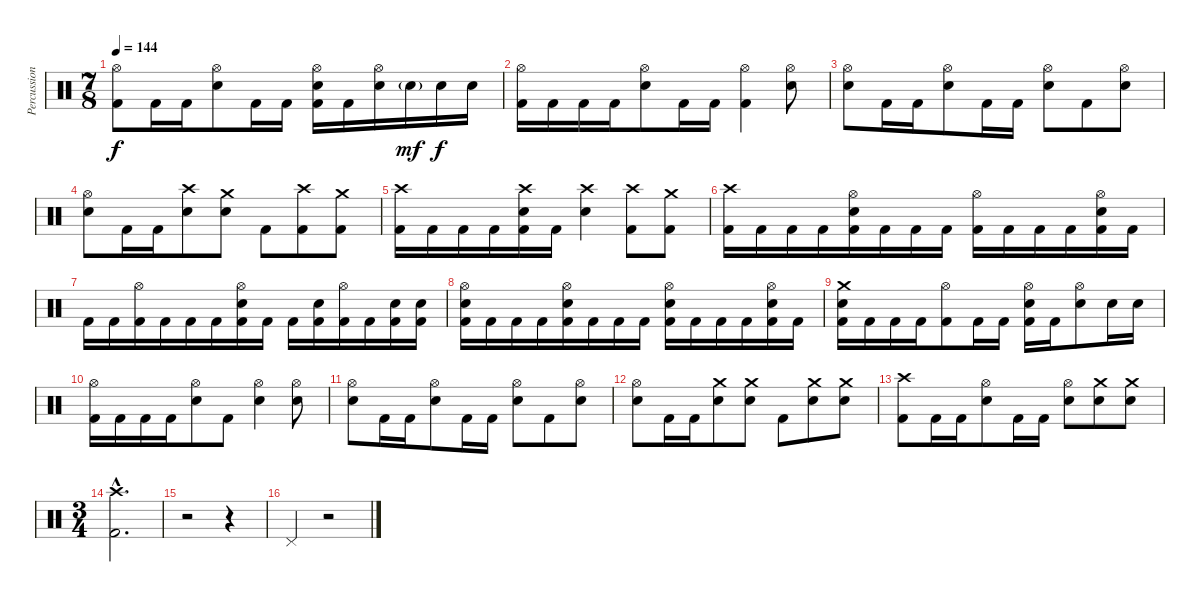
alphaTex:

\track ("Percussion" "Percussion") {instrument percussion}
\staff {score}
\articulation defaults
\ts (7 8)
\tempo 144
\clef neutral
\ks c
("Hi-Hat (open)" "Kick (hit) 2").8{dy f} "Kick (hit) 2".16 "Kick (hit) 2".16 ("Hi-Hat (open)" "Snare (hit) 2").8 "Kick (hit) 2".16 "Kick (hit) 2".16 ("Hi-Hat (open)" "Snare (hit) 2" "Kick (hit) 2").16 "Kick (hit) 2".16 ("Hi-Hat (open)" "Snare (hit) 2").16 "Snare (hit) 2"{g}.16{dy mf} "Snare (hit) 2".16{dy f} "Snare (hit) 2".16 |
\section ("" "")
("Hi-Hat (open)" "Kick (hit) 2").16 "Kick (hit) 2".16 "Kick (hit) 2".16 "Kick (hit) 2".16 ("Hi-Hat (open)" "Snare (hit) 2").8 "Kick (hit) 2".16 "Kick (hit) 2".16 ("Hi-Hat (open)" "Kick (hit) 2").4 ("Hi-Hat (open)" "Snare (hit) 2").8 |
("Hi-Hat (open)" "Snare (hit) 2").8 "Kick (hit) 2".16 "Kick (hit) 2".16 ("Hi-Hat (open)" "Snare (hit) 2").8 "Kick (hit) 2".16 "Kick (hit) 2".16 ("Hi-Hat (open)" "Snare (hit) 2").8 "Kick (hit) 2".8 ("Hi-Hat (open)" "Snare (hit) 2").8 |
("Hi-Hat (open)" "Snare (hit) 2").8 "Kick (hit) 2".16 "Kick (hit) 2".16 ("Crash high (hit)" "Snare (hit) 2").8 ("Crash medium (hit)" "Snare (hit) 2").8 "Kick (hit) 2".8 ("Crash high (hit)" "Kick (hit) 2").8 ("Crash medium (hit)" "Kick (hit) 2").8 |
("Crash high (hit)" "Kick (hit) 2").16 "Kick (hit) 2".16 "Kick (hit) 2".16 "Kick (hit) 2".16 ("Crash high (hit)" "Snare (hit) 2" "Kick (hit) 2").16 "Kick (hit) 2".16 ("Crash high (hit)" "Snare (hit) 2").4 ("Crash high (hit)" "Kick (hit) 2").8 ("Crash medium (hit)" "Kick (hit) 2").8 |
("Crash high (hit)" "Kick (hit) 2").16 "Kick (hit) 2".16 "Kick (hit) 2".16 "Kick (hit) 2".16 ("Hi-Hat (open)" "Snare (hit) 2" "Kick (hit) 2").16 "Kick (hit) 2".16 "Kick (hit) 2".16 "Kick (hit) 2".16 ("Hi-Hat (open)" "Kick (hit) 2").16 "Kick (hit) 2".16 "Kick (hit) 2".16 "Kick (hit) 2".16 ("Hi-Hat (open)" "Snare (hit) 2" "Kick (hit) 2").16 "Kick (hit) 2".16 |
"Kick (hit) 2".16 "Kick (hit) 2".16 ("Hi-Hat (open)" "Kick (hit) 2").16 "Kick (hit) 2".16 "Kick (hit) 2".16 "Kick (hit) 2".16 ("Hi-Hat (open)" "Snare (hit) 2" "Kick (hit) 2").16 "Kick (hit) 2".16 "Kick (hit) 2".16 ("Snare (hit) 2" "Kick (hit) 2").16 ("Hi-Hat (open)" "Kick (hit) 2").16 "Kick (hit) 2".16 ("Snare (hit) 2" "Kick (hit) 2").16 ("Snare (hit) 2" "Kick (hit) 2").16 |
("Hi-Hat (open)" "Snare (hit) 2" "Kick (hit) 2").16 "Kick (hit) 2".16 "Kick (hit) 2".16 "Kick (hit) 2".16 ("Hi-Hat (open)" "Snare (hit) 2" "Kick (hit) 2").16 "Kick (hit) 2".16 "Kick (hit) 2".16 "Kick (hit) 2".16 ("Hi-Hat (open)" "Snare (hit) 2" "Kick (hit) 2").16 "Kick (hit) 2".16 "Kick (hit) 2".16 "Kick (hit) 2".16 ("Hi-Hat (open)" "Snare (hit) 2" "Kick (hit) 2").16 "Kick (hit) 2".16 |
("Crash medium (hit)" "Snare (hit) 2" "Kick (hit) 2").16 "Kick (hit) 2".16 "Kick (hit) 2".16 "Kick (hit) 2".16 ("Hi-Hat (open)" "Kick (hit) 2").8 "Kick (hit) 2".16 "Kick (hit) 2".16 ("Hi-Hat (open)" "Snare (hit) 2" "Kick (hit) 2").16 "Kick (hit) 2".16 ("Hi-Hat (open)" "Snare (hit) 2").8 "Snare (hit) 2".16 "Snare (hit) 2".16 |
("Hi-Hat (open)" "Kick (hit) 2").16 "Kick (hit) 2".16 "Kick (hit) 2".16 "Kick (hit) 2".16 ("Hi-Hat (open)" "Snare (hit) 2").8 "Kick (hit) 2".8 ("Hi-Hat (open)" "Snare (hit) 2").4 ("Hi-Hat (open)" "Snare (hit) 2").8 |
("Hi-Hat (open)" "Snare (hit) 2").8 "Kick (hit) 2".16 "Kick (hit) 2".16 ("Hi-Hat (open)" "Snare (hit) 2").8 "Kick (hit) 2".16 "Kick (hit) 2".16 ("Hi-Hat (open)" "Snare (hit) 2").8 "Kick (hit) 2".8 ("Hi-Hat (open)" "Snare (hit) 2").8 |
("Hi-Hat (open)" "Snare (hit) 2").8 "Kick (hit) 2".16 "Kick (hit) 2".16 ("Crash medium (hit)" "Snare (hit) 2").8 ("Crash medium (hit)" "Snare (hit) 2").8 "Kick (hit) 2".8 ("Crash medium (hit)" "Snare (hit) 2").8 ("Crash medium (hit)" "Snare (hit) 2").8 |
("Crash high (hit)" "Kick (hit) 2").8 "Kick (hit) 2".16 "Kick (hit) 2".16 ("Hi-Hat (open)" "Snare (hit) 2").8 "Kick (hit) 2".16 "Kick (hit) 2".16 ("Hi-Hat (open)" "Snare (hit) 2").8 ("Crash medium (hit)" "Snare (hit) 2").8 ("Crash medium (hit)" "Snare (hit) 2").8 |
\ts (3 4)
\section ("" "")
("Crash high (hit)"{hac} "Kick (hit) 2"{hac}).2{d} |
r.2 r.4 |
"Pedal Hi-Hat (hit)".4 r.2
